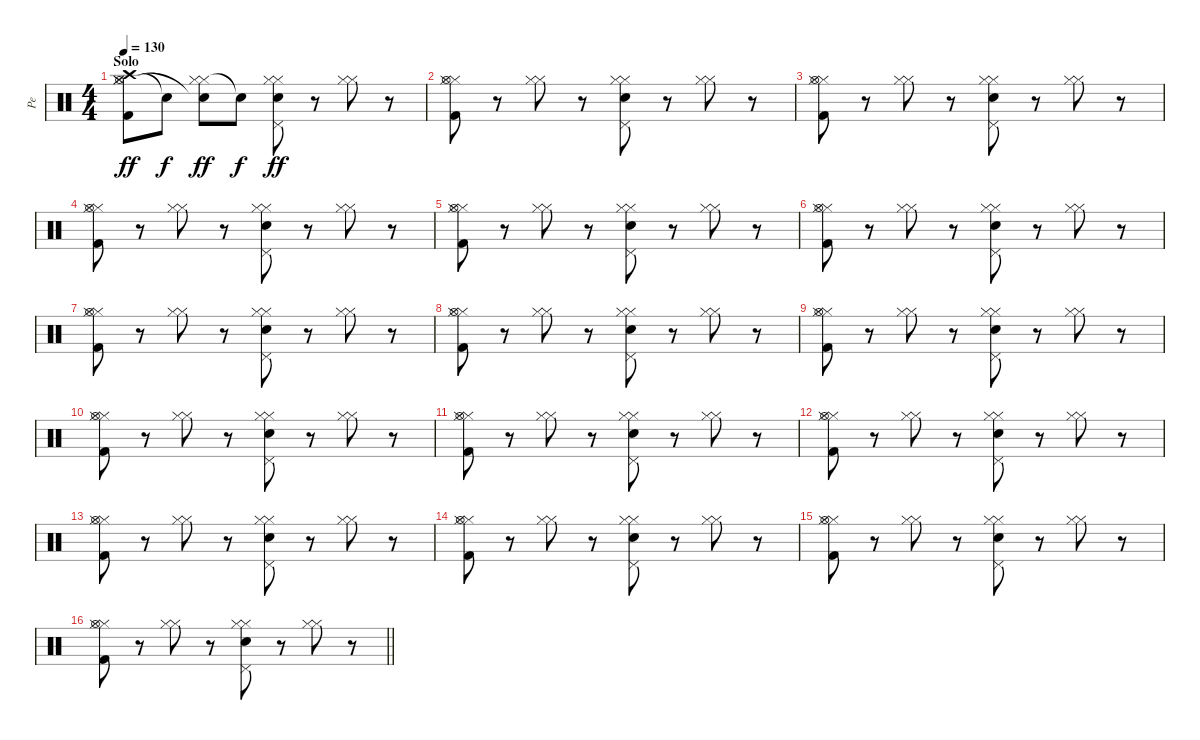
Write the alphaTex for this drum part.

\track ("Pe" "Pe") {instrument percussion}
\staff {score}
\articulation defaults
\ts (4 4)
\section ("" "Solo")
\tempo 130
\clef neutral
\ks c
("Hi-Hat (closed)" "Hi-Hat (closed)" "Hi-Hat (open)" "Crash high (hit)" "Kick (hit) 2").8{dy ff} "Snare (hit)"{t}.8{dy f} ("Hi-Hat (closed)" "Hi-Hat (closed)" "Snare (hit)"{t}).8{dy ff} "Snare (hit)"{t}.8{dy f} ("Hi-Hat (closed)" "Hi-Hat (closed)" "Pedal Hi-Hat (hit)" "Electric Snare (hit)").8{dy ff} r.8 ("Hi-Hat (closed)" "Hi-Hat (closed)").8 r.8 |
("Hi-Hat (closed)" "Hi-Hat (closed)" "Hi-Hat (open)" "Kick (hit) 2").8 r.8 ("Hi-Hat (closed)" "Hi-Hat (closed)").8 r.8 ("Hi-Hat (closed)" "Hi-Hat (closed)" "Pedal Hi-Hat (hit)" "Electric Snare (hit)").8 r.8 ("Hi-Hat (closed)" "Hi-Hat (closed)").8 r.8 |
("Hi-Hat (closed)" "Hi-Hat (closed)" "Hi-Hat (open)" "Kick (hit) 2").8 r.8 ("Hi-Hat (closed)" "Hi-Hat (closed)").8 r.8 ("Hi-Hat (closed)" "Hi-Hat (closed)" "Pedal Hi-Hat (hit)" "Electric Snare (hit)").8 r.8 ("Hi-Hat (closed)" "Hi-Hat (closed)").8 r.8 |
("Hi-Hat (closed)" "Hi-Hat (closed)" "Hi-Hat (open)" "Kick (hit) 2").8 r.8 ("Hi-Hat (closed)" "Hi-Hat (closed)").8 r.8 ("Hi-Hat (closed)" "Hi-Hat (closed)" "Pedal Hi-Hat (hit)" "Electric Snare (hit)").8 r.8 ("Hi-Hat (closed)" "Hi-Hat (closed)").8 r.8 |
("Hi-Hat (closed)" "Hi-Hat (closed)" "Hi-Hat (open)" "Kick (hit) 2").8 r.8 ("Hi-Hat (closed)" "Hi-Hat (closed)").8 r.8 ("Hi-Hat (closed)" "Hi-Hat (closed)" "Pedal Hi-Hat (hit)" "Electric Snare (hit)").8 r.8 ("Hi-Hat (closed)" "Hi-Hat (closed)").8 r.8 |
("Hi-Hat (closed)" "Hi-Hat (closed)" "Hi-Hat (open)" "Kick (hit) 2").8 r.8 ("Hi-Hat (closed)" "Hi-Hat (closed)").8 r.8 ("Hi-Hat (closed)" "Hi-Hat (closed)" "Pedal Hi-Hat (hit)" "Electric Snare (hit)").8 r.8 ("Hi-Hat (closed)" "Hi-Hat (closed)").8 r.8 |
("Hi-Hat (closed)" "Hi-Hat (closed)" "Hi-Hat (open)" "Kick (hit) 2").8 r.8 ("Hi-Hat (closed)" "Hi-Hat (closed)").8 r.8 ("Hi-Hat (closed)" "Hi-Hat (closed)" "Pedal Hi-Hat (hit)" "Electric Snare (hit)").8 r.8 ("Hi-Hat (closed)" "Hi-Hat (closed)").8 r.8 |
("Hi-Hat (closed)" "Hi-Hat (closed)" "Hi-Hat (open)" "Kick (hit) 2").8 r.8 ("Hi-Hat (closed)" "Hi-Hat (closed)").8 r.8 ("Hi-Hat (closed)" "Hi-Hat (closed)" "Pedal Hi-Hat (hit)" "Electric Snare (hit)").8 r.8 ("Hi-Hat (closed)" "Hi-Hat (closed)").8 r.8 |
("Hi-Hat (closed)" "Hi-Hat (closed)" "Hi-Hat (open)" "Kick (hit) 2").8 r.8 ("Hi-Hat (closed)" "Hi-Hat (closed)").8 r.8 ("Hi-Hat (closed)" "Hi-Hat (closed)" "Pedal Hi-Hat (hit)" "Electric Snare (hit)").8 r.8 ("Hi-Hat (closed)" "Hi-Hat (closed)").8 r.8 |
("Hi-Hat (closed)" "Hi-Hat (closed)" "Hi-Hat (open)" "Kick (hit) 2").8 r.8 ("Hi-Hat (closed)" "Hi-Hat (closed)").8 r.8 ("Hi-Hat (closed)" "Hi-Hat (closed)" "Pedal Hi-Hat (hit)" "Electric Snare (hit)").8 r.8 ("Hi-Hat (closed)" "Hi-Hat (closed)").8 r.8 |
("Hi-Hat (closed)" "Hi-Hat (closed)" "Hi-Hat (open)" "Kick (hit) 2").8 r.8 ("Hi-Hat (closed)" "Hi-Hat (closed)").8 r.8 ("Hi-Hat (closed)" "Hi-Hat (closed)" "Pedal Hi-Hat (hit)" "Electric Snare (hit)").8 r.8 ("Hi-Hat (closed)" "Hi-Hat (closed)").8 r.8 |
("Hi-Hat (closed)" "Hi-Hat (closed)" "Hi-Hat (open)" "Kick (hit) 2").8 r.8 ("Hi-Hat (closed)" "Hi-Hat (closed)").8 r.8 ("Hi-Hat (closed)" "Hi-Hat (closed)" "Pedal Hi-Hat (hit)" "Electric Snare (hit)").8 r.8 ("Hi-Hat (closed)" "Hi-Hat (closed)").8 r.8 |
("Hi-Hat (closed)" "Hi-Hat (closed)" "Hi-Hat (open)" "Kick (hit) 2").8 r.8 ("Hi-Hat (closed)" "Hi-Hat (closed)").8 r.8 ("Hi-Hat (closed)" "Hi-Hat (closed)" "Pedal Hi-Hat (hit)" "Electric Snare (hit)").8 r.8 ("Hi-Hat (closed)" "Hi-Hat (closed)").8 r.8 |
("Hi-Hat (closed)" "Hi-Hat (closed)" "Hi-Hat (open)" "Kick (hit) 2").8 r.8 ("Hi-Hat (closed)" "Hi-Hat (closed)").8 r.8 ("Hi-Hat (closed)" "Hi-Hat (closed)" "Pedal Hi-Hat (hit)" "Electric Snare (hit)").8 r.8 ("Hi-Hat (closed)" "Hi-Hat (closed)").8 r.8 |
("Hi-Hat (closed)" "Hi-Hat (closed)" "Hi-Hat (open)" "Kick (hit) 2").8 r.8 ("Hi-Hat (closed)" "Hi-Hat (closed)").8 r.8 ("Hi-Hat (closed)" "Hi-Hat (closed)" "Pedal Hi-Hat (hit)" "Electric Snare (hit)").8 r.8 ("Hi-Hat (closed)" "Hi-Hat (closed)").8 r.8 |
\barLineRight lightlight
("Hi-Hat (closed)" "Hi-Hat (closed)" "Hi-Hat (open)" "Kick (hit) 2").8 r.8 ("Hi-Hat (closed)" "Hi-Hat (closed)").8 r.8 ("Hi-Hat (closed)" "Hi-Hat (closed)" "Pedal Hi-Hat (hit)" "Electric Snare (hit)").8 r.8 ("Hi-Hat (closed)" "Hi-Hat (closed)").8 r.8
